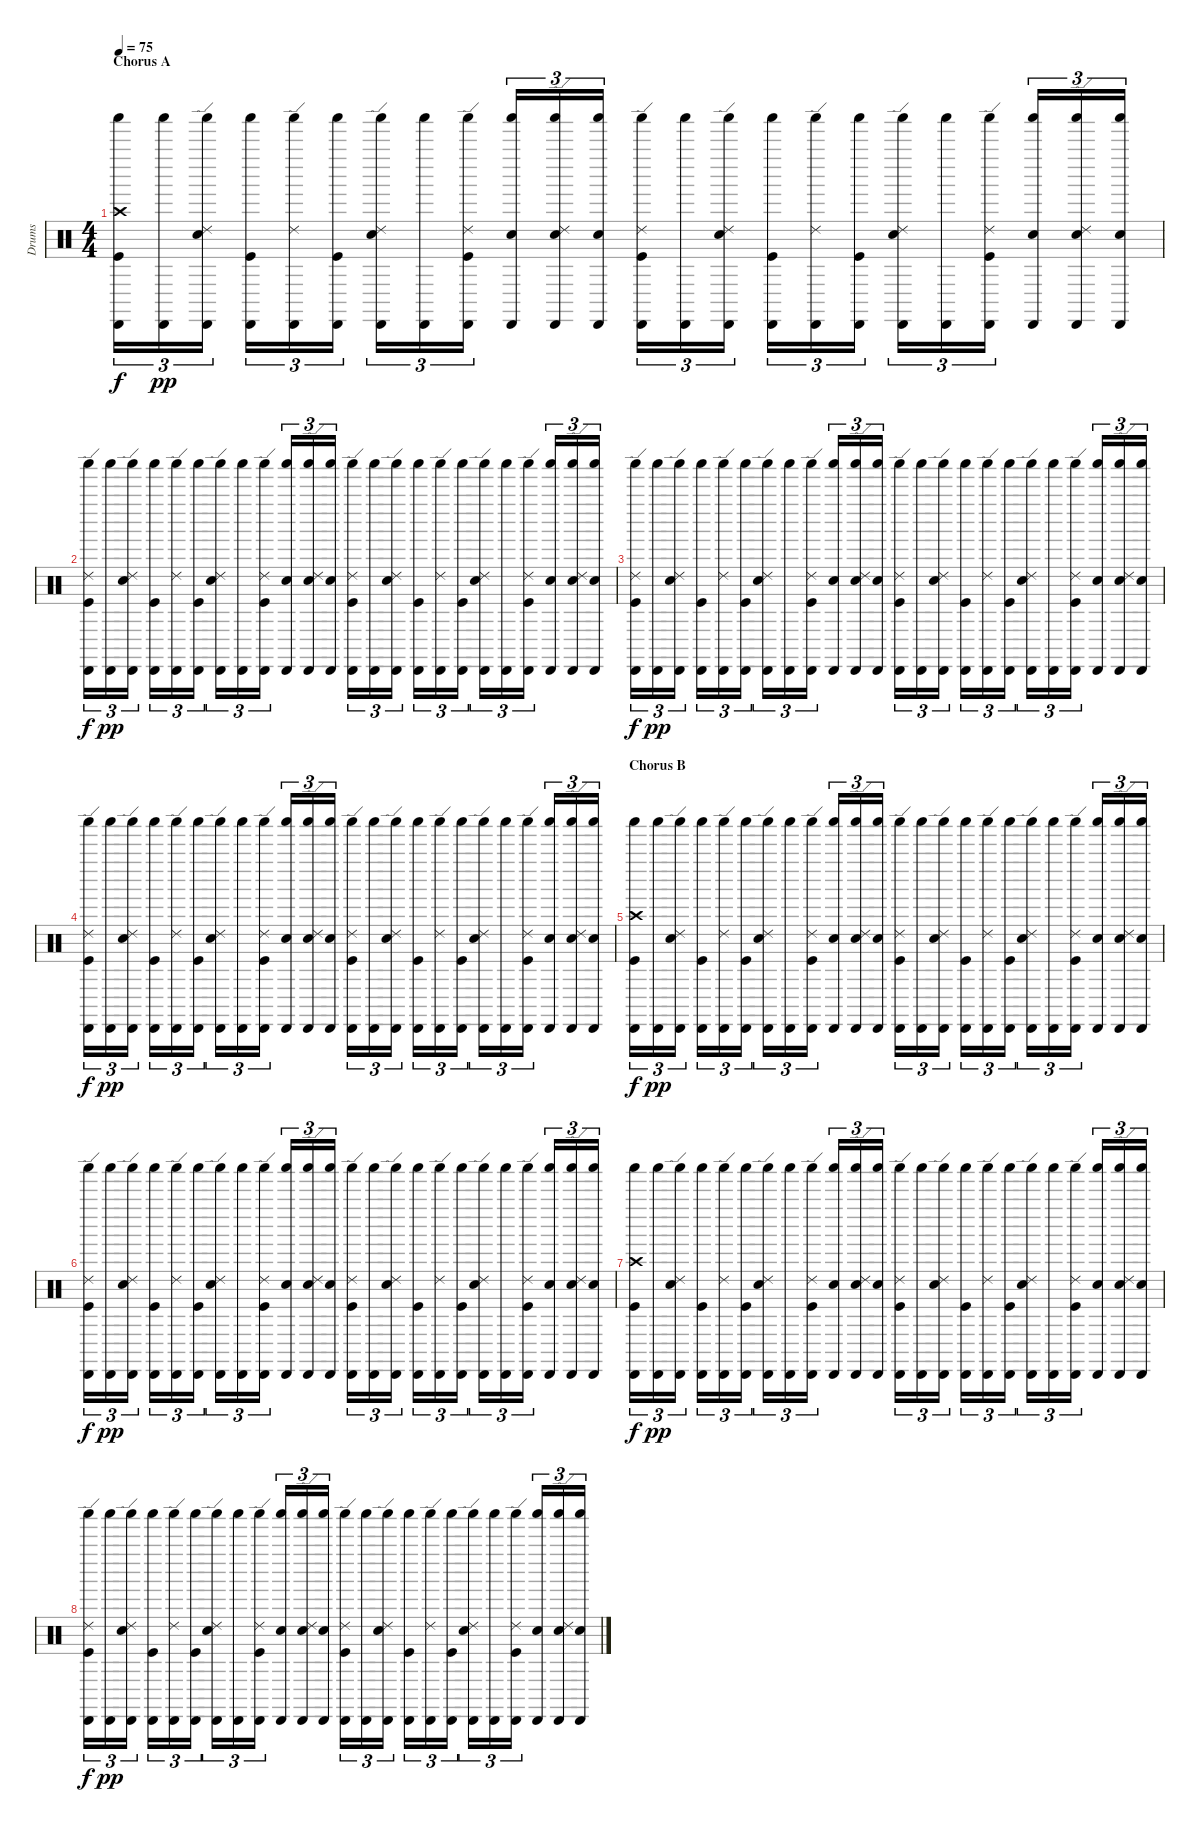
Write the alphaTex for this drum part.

\track ("Drums" "Drums") {instrument percussion}
\staff {score}
\articulation defaults
\ts (4 4)
\section ("" "Chorus A")
\tempo 75
\clef neutral
\ks c
("Cabasa (hit)" "Crash high (hit)" "Kick (hit)" "Shaker (hit)").16{tu (3 2) dy f} ("Cabasa (hit)" "Shaker (hit)").16{tu (3 2) dy pp} ("Electric Snare (hit)" "Ride (edge) 2" "Cabasa (hit)" "Shaker (hit)").16{tu (3 2)} ("Cabasa (hit)" "Kick (hit)" "Shaker (hit)").16{tu (3 2)} ("Ride (edge) 2" "Cabasa (hit)" "Shaker (hit)").16{tu (3 2)} ("Kick (hit)" "Cabasa (hit)" "Shaker (hit)").16{tu (3 2)} ("Cabasa (hit)" "Electric Snare (hit)" "Ride (edge) 2" "Shaker (hit)").16{tu (3 2)} ("Cabasa (hit)" "Shaker (hit)").16{tu (3 2)} ("Cabasa (hit)" "Ride (edge) 2" "Kick (hit)" "Shaker (hit)").16{tu (3 2)} ("Cabasa (hit)" "Electric Snare (hit)" "Shaker (hit)").16{tu (3 2)} ("Electric Snare (hit)" "Ride (edge) 2" "Cabasa (hit)" "Shaker (hit)").16{tu (3 2)} ("Cabasa (hit)" "Electric Snare (hit)" "Shaker (hit)").16{tu (3 2)} ("Cabasa (hit)" "Ride (edge) 2" "Kick (hit)" "Shaker (hit)").16{tu (3 2)} ("Cabasa (hit)" "Shaker (hit)").16{tu (3 2)} ("Cabasa (hit)" "Electric Snare (hit)" "Ride (edge) 2" "Shaker (hit)").16{tu (3 2)} ("Cabasa (hit)" "Kick (hit)" "Shaker (hit)").16{tu (3 2)} ("Cabasa (hit)" "Ride (edge) 2" "Shaker (hit)").16{tu (3 2)} ("Kick (hit)" "Cabasa (hit)" "Shaker (hit)").16{tu (3 2)} ("Cabasa (hit)" "Electric Snare (hit)" "Ride (edge) 2" "Shaker (hit)").16{tu (3 2)} ("Cabasa (hit)" "Shaker (hit)").16{tu (3 2)} ("Cabasa (hit)" "Kick (hit)" "Ride (edge) 2" "Shaker (hit)").16{tu (3 2)} ("Cabasa (hit)" "Electric Snare (hit)" "Shaker (hit)").16{tu (3 2)} ("Electric Snare (hit)" "Ride (edge) 2" "Cabasa (hit)" "Shaker (hit)").16{tu (3 2)} ("Cabasa (hit)" "Electric Snare (hit)" "Shaker (hit)").16{tu (3 2)} |
("Cabasa (hit)" "Ride (edge) 2" "Kick (hit)" "Shaker (hit)").16{tu (3 2) dy f} ("Cabasa (hit)" "Shaker (hit)").16{tu (3 2) dy pp} ("Electric Snare (hit)" "Ride (edge) 2" "Cabasa (hit)" "Shaker (hit)").16{tu (3 2)} ("Cabasa (hit)" "Kick (hit)" "Shaker (hit)").16{tu (3 2)} ("Ride (edge) 2" "Cabasa (hit)" "Shaker (hit)").16{tu (3 2)} ("Kick (hit)" "Cabasa (hit)" "Shaker (hit)").16{tu (3 2)} ("Cabasa (hit)" "Electric Snare (hit)" "Ride (edge) 2" "Shaker (hit)").16{tu (3 2)} ("Cabasa (hit)" "Shaker (hit)").16{tu (3 2)} ("Cabasa (hit)" "Ride (edge) 2" "Kick (hit)" "Shaker (hit)").16{tu (3 2)} ("Cabasa (hit)" "Electric Snare (hit)" "Shaker (hit)").16{tu (3 2)} ("Electric Snare (hit)" "Ride (edge) 2" "Cabasa (hit)" "Shaker (hit)").16{tu (3 2)} ("Cabasa (hit)" "Electric Snare (hit)" "Shaker (hit)").16{tu (3 2)} ("Cabasa (hit)" "Ride (edge) 2" "Kick (hit)" "Shaker (hit)").16{tu (3 2)} ("Cabasa (hit)" "Shaker (hit)").16{tu (3 2)} ("Cabasa (hit)" "Electric Snare (hit)" "Ride (edge) 2" "Shaker (hit)").16{tu (3 2)} ("Cabasa (hit)" "Kick (hit)" "Shaker (hit)").16{tu (3 2)} ("Cabasa (hit)" "Ride (edge) 2" "Shaker (hit)").16{tu (3 2)} ("Kick (hit)" "Cabasa (hit)" "Shaker (hit)").16{tu (3 2)} ("Cabasa (hit)" "Electric Snare (hit)" "Ride (edge) 2" "Shaker (hit)").16{tu (3 2)} ("Cabasa (hit)" "Shaker (hit)").16{tu (3 2)} ("Cabasa (hit)" "Kick (hit)" "Ride (edge) 2" "Shaker (hit)").16{tu (3 2)} ("Cabasa (hit)" "Electric Snare (hit)" "Shaker (hit)").16{tu (3 2)} ("Electric Snare (hit)" "Ride (edge) 2" "Cabasa (hit)" "Shaker (hit)").16{tu (3 2)} ("Cabasa (hit)" "Electric Snare (hit)" "Shaker (hit)").16{tu (3 2)} |
("Cabasa (hit)" "Ride (edge) 2" "Kick (hit)" "Shaker (hit)").16{tu (3 2) dy f} ("Cabasa (hit)" "Shaker (hit)").16{tu (3 2) dy pp} ("Electric Snare (hit)" "Ride (edge) 2" "Cabasa (hit)" "Shaker (hit)").16{tu (3 2)} ("Cabasa (hit)" "Kick (hit)" "Shaker (hit)").16{tu (3 2)} ("Ride (edge) 2" "Cabasa (hit)" "Shaker (hit)").16{tu (3 2)} ("Kick (hit)" "Cabasa (hit)" "Shaker (hit)").16{tu (3 2)} ("Cabasa (hit)" "Electric Snare (hit)" "Ride (edge) 2" "Shaker (hit)").16{tu (3 2)} ("Cabasa (hit)" "Shaker (hit)").16{tu (3 2)} ("Cabasa (hit)" "Ride (edge) 2" "Kick (hit)" "Shaker (hit)").16{tu (3 2)} ("Cabasa (hit)" "Electric Snare (hit)" "Shaker (hit)").16{tu (3 2)} ("Electric Snare (hit)" "Ride (edge) 2" "Cabasa (hit)" "Shaker (hit)").16{tu (3 2)} ("Cabasa (hit)" "Electric Snare (hit)" "Shaker (hit)").16{tu (3 2)} ("Cabasa (hit)" "Ride (edge) 2" "Kick (hit)" "Shaker (hit)").16{tu (3 2)} ("Cabasa (hit)" "Shaker (hit)").16{tu (3 2)} ("Cabasa (hit)" "Electric Snare (hit)" "Ride (edge) 2" "Shaker (hit)").16{tu (3 2)} ("Cabasa (hit)" "Kick (hit)" "Shaker (hit)").16{tu (3 2)} ("Cabasa (hit)" "Ride (edge) 2" "Shaker (hit)").16{tu (3 2)} ("Kick (hit)" "Cabasa (hit)" "Shaker (hit)").16{tu (3 2)} ("Cabasa (hit)" "Electric Snare (hit)" "Ride (edge) 2" "Shaker (hit)").16{tu (3 2)} ("Cabasa (hit)" "Shaker (hit)").16{tu (3 2)} ("Cabasa (hit)" "Kick (hit)" "Ride (edge) 2" "Shaker (hit)").16{tu (3 2)} ("Cabasa (hit)" "Electric Snare (hit)" "Shaker (hit)").16{tu (3 2)} ("Electric Snare (hit)" "Ride (edge) 2" "Cabasa (hit)" "Shaker (hit)").16{tu (3 2)} ("Cabasa (hit)" "Electric Snare (hit)" "Shaker (hit)").16{tu (3 2)} |
("Cabasa (hit)" "Ride (edge) 2" "Kick (hit)" "Shaker (hit)").16{tu (3 2) dy f} ("Cabasa (hit)" "Shaker (hit)").16{tu (3 2) dy pp} ("Electric Snare (hit)" "Ride (edge) 2" "Cabasa (hit)" "Shaker (hit)").16{tu (3 2)} ("Cabasa (hit)" "Kick (hit)" "Shaker (hit)").16{tu (3 2)} ("Ride (edge) 2" "Cabasa (hit)" "Shaker (hit)").16{tu (3 2)} ("Kick (hit)" "Cabasa (hit)" "Shaker (hit)").16{tu (3 2)} ("Cabasa (hit)" "Electric Snare (hit)" "Ride (edge) 2" "Shaker (hit)").16{tu (3 2)} ("Cabasa (hit)" "Shaker (hit)").16{tu (3 2)} ("Cabasa (hit)" "Ride (edge) 2" "Kick (hit)" "Shaker (hit)").16{tu (3 2)} ("Cabasa (hit)" "Electric Snare (hit)" "Shaker (hit)").16{tu (3 2)} ("Electric Snare (hit)" "Ride (edge) 2" "Cabasa (hit)" "Shaker (hit)").16{tu (3 2)} ("Cabasa (hit)" "Electric Snare (hit)" "Shaker (hit)").16{tu (3 2)} ("Cabasa (hit)" "Ride (edge) 2" "Kick (hit)" "Shaker (hit)").16{tu (3 2)} ("Cabasa (hit)" "Shaker (hit)").16{tu (3 2)} ("Cabasa (hit)" "Electric Snare (hit)" "Ride (edge) 2" "Shaker (hit)").16{tu (3 2)} ("Cabasa (hit)" "Kick (hit)" "Shaker (hit)").16{tu (3 2)} ("Cabasa (hit)" "Ride (edge) 2" "Shaker (hit)").16{tu (3 2)} ("Kick (hit)" "Cabasa (hit)" "Shaker (hit)").16{tu (3 2)} ("Cabasa (hit)" "Electric Snare (hit)" "Ride (edge) 2" "Shaker (hit)").16{tu (3 2)} ("Cabasa (hit)" "Shaker (hit)").16{tu (3 2)} ("Cabasa (hit)" "Kick (hit)" "Ride (edge) 2" "Shaker (hit)").16{tu (3 2)} ("Cabasa (hit)" "Electric Snare (hit)" "Shaker (hit)").16{tu (3 2)} ("Electric Snare (hit)" "Ride (edge) 2" "Cabasa (hit)" "Shaker (hit)").16{tu (3 2)} ("Cabasa (hit)" "Electric Snare (hit)" "Shaker (hit)").16{tu (3 2)} |
\section ("" "Chorus B")
("Cabasa (hit)" "Crash high (hit)" "Kick (hit)" "Shaker (hit)").16{tu (3 2) dy f} ("Cabasa (hit)" "Shaker (hit)").16{tu (3 2) dy pp} ("Electric Snare (hit)" "Ride (edge) 2" "Cabasa (hit)" "Shaker (hit)").16{tu (3 2)} ("Cabasa (hit)" "Kick (hit)" "Shaker (hit)").16{tu (3 2)} ("Ride (edge) 2" "Cabasa (hit)" "Shaker (hit)").16{tu (3 2)} ("Kick (hit)" "Cabasa (hit)" "Shaker (hit)").16{tu (3 2)} ("Cabasa (hit)" "Electric Snare (hit)" "Ride (edge) 2" "Shaker (hit)").16{tu (3 2)} ("Cabasa (hit)" "Shaker (hit)").16{tu (3 2)} ("Cabasa (hit)" "Ride (edge) 2" "Kick (hit)" "Shaker (hit)").16{tu (3 2)} ("Cabasa (hit)" "Electric Snare (hit)" "Shaker (hit)").16{tu (3 2)} ("Electric Snare (hit)" "Ride (edge) 2" "Cabasa (hit)" "Shaker (hit)").16{tu (3 2)} ("Cabasa (hit)" "Electric Snare (hit)" "Shaker (hit)").16{tu (3 2)} ("Cabasa (hit)" "Ride (edge) 2" "Kick (hit)" "Shaker (hit)").16{tu (3 2)} ("Cabasa (hit)" "Shaker (hit)").16{tu (3 2)} ("Cabasa (hit)" "Electric Snare (hit)" "Ride (edge) 2" "Shaker (hit)").16{tu (3 2)} ("Cabasa (hit)" "Kick (hit)" "Shaker (hit)").16{tu (3 2)} ("Cabasa (hit)" "Ride (edge) 2" "Shaker (hit)").16{tu (3 2)} ("Kick (hit)" "Cabasa (hit)" "Shaker (hit)").16{tu (3 2)} ("Cabasa (hit)" "Electric Snare (hit)" "Ride (edge) 2" "Shaker (hit)").16{tu (3 2)} ("Cabasa (hit)" "Shaker (hit)").16{tu (3 2)} ("Cabasa (hit)" "Kick (hit)" "Ride (edge) 2" "Shaker (hit)").16{tu (3 2)} ("Cabasa (hit)" "Electric Snare (hit)" "Shaker (hit)").16{tu (3 2)} ("Electric Snare (hit)" "Ride (edge) 2" "Cabasa (hit)" "Shaker (hit)").16{tu (3 2)} ("Cabasa (hit)" "Electric Snare (hit)" "Shaker (hit)").16{tu (3 2)} |
("Cabasa (hit)" "Ride (edge) 2" "Kick (hit)" "Shaker (hit)").16{tu (3 2) dy f} ("Cabasa (hit)" "Shaker (hit)").16{tu (3 2) dy pp} ("Electric Snare (hit)" "Ride (edge) 2" "Cabasa (hit)" "Shaker (hit)").16{tu (3 2)} ("Cabasa (hit)" "Kick (hit)" "Shaker (hit)").16{tu (3 2)} ("Ride (edge) 2" "Cabasa (hit)" "Shaker (hit)").16{tu (3 2)} ("Kick (hit)" "Cabasa (hit)" "Shaker (hit)").16{tu (3 2)} ("Cabasa (hit)" "Electric Snare (hit)" "Ride (edge) 2" "Shaker (hit)").16{tu (3 2)} ("Cabasa (hit)" "Shaker (hit)").16{tu (3 2)} ("Cabasa (hit)" "Ride (edge) 2" "Kick (hit)" "Shaker (hit)").16{tu (3 2)} ("Cabasa (hit)" "Electric Snare (hit)" "Shaker (hit)").16{tu (3 2)} ("Electric Snare (hit)" "Ride (edge) 2" "Cabasa (hit)" "Shaker (hit)").16{tu (3 2)} ("Cabasa (hit)" "Electric Snare (hit)" "Shaker (hit)").16{tu (3 2)} ("Cabasa (hit)" "Ride (edge) 2" "Kick (hit)" "Shaker (hit)").16{tu (3 2)} ("Cabasa (hit)" "Shaker (hit)").16{tu (3 2)} ("Cabasa (hit)" "Electric Snare (hit)" "Ride (edge) 2" "Shaker (hit)").16{tu (3 2)} ("Cabasa (hit)" "Kick (hit)" "Shaker (hit)").16{tu (3 2)} ("Cabasa (hit)" "Ride (edge) 2" "Shaker (hit)").16{tu (3 2)} ("Kick (hit)" "Cabasa (hit)" "Shaker (hit)").16{tu (3 2)} ("Cabasa (hit)" "Electric Snare (hit)" "Ride (edge) 2" "Shaker (hit)").16{tu (3 2)} ("Cabasa (hit)" "Shaker (hit)").16{tu (3 2)} ("Cabasa (hit)" "Kick (hit)" "Ride (edge) 2" "Shaker (hit)").16{tu (3 2)} ("Cabasa (hit)" "Electric Snare (hit)" "Shaker (hit)").16{tu (3 2)} ("Electric Snare (hit)" "Ride (edge) 2" "Cabasa (hit)" "Shaker (hit)").16{tu (3 2)} ("Cabasa (hit)" "Electric Snare (hit)" "Shaker (hit)").16{tu (3 2)} |
("Cabasa (hit)" "Crash high (hit)" "Kick (hit)" "Shaker (hit)").16{tu (3 2) dy f} ("Cabasa (hit)" "Shaker (hit)").16{tu (3 2) dy pp} ("Electric Snare (hit)" "Ride (edge) 2" "Cabasa (hit)" "Shaker (hit)").16{tu (3 2)} ("Cabasa (hit)" "Kick (hit)" "Shaker (hit)").16{tu (3 2)} ("Ride (edge) 2" "Cabasa (hit)" "Shaker (hit)").16{tu (3 2)} ("Kick (hit)" "Cabasa (hit)" "Shaker (hit)").16{tu (3 2)} ("Cabasa (hit)" "Electric Snare (hit)" "Ride (edge) 2" "Shaker (hit)").16{tu (3 2)} ("Cabasa (hit)" "Shaker (hit)").16{tu (3 2)} ("Cabasa (hit)" "Ride (edge) 2" "Kick (hit)" "Shaker (hit)").16{tu (3 2)} ("Cabasa (hit)" "Electric Snare (hit)" "Shaker (hit)").16{tu (3 2)} ("Electric Snare (hit)" "Ride (edge) 2" "Cabasa (hit)" "Shaker (hit)").16{tu (3 2)} ("Cabasa (hit)" "Electric Snare (hit)" "Shaker (hit)").16{tu (3 2)} ("Cabasa (hit)" "Ride (edge) 2" "Kick (hit)" "Shaker (hit)").16{tu (3 2)} ("Cabasa (hit)" "Shaker (hit)").16{tu (3 2)} ("Cabasa (hit)" "Electric Snare (hit)" "Ride (edge) 2" "Shaker (hit)").16{tu (3 2)} ("Cabasa (hit)" "Kick (hit)" "Shaker (hit)").16{tu (3 2)} ("Cabasa (hit)" "Ride (edge) 2" "Shaker (hit)").16{tu (3 2)} ("Kick (hit)" "Cabasa (hit)" "Shaker (hit)").16{tu (3 2)} ("Cabasa (hit)" "Electric Snare (hit)" "Ride (edge) 2" "Shaker (hit)").16{tu (3 2)} ("Cabasa (hit)" "Shaker (hit)").16{tu (3 2)} ("Cabasa (hit)" "Kick (hit)" "Ride (edge) 2" "Shaker (hit)").16{tu (3 2)} ("Cabasa (hit)" "Electric Snare (hit)" "Shaker (hit)").16{tu (3 2)} ("Electric Snare (hit)" "Ride (edge) 2" "Cabasa (hit)" "Shaker (hit)").16{tu (3 2)} ("Cabasa (hit)" "Electric Snare (hit)" "Shaker (hit)").16{tu (3 2)} |
("Cabasa (hit)" "Ride (edge) 2" "Kick (hit)" "Shaker (hit)").16{tu (3 2) dy f} ("Cabasa (hit)" "Shaker (hit)").16{tu (3 2) dy pp} ("Electric Snare (hit)" "Ride (edge) 2" "Cabasa (hit)" "Shaker (hit)").16{tu (3 2)} ("Cabasa (hit)" "Kick (hit)" "Shaker (hit)").16{tu (3 2)} ("Ride (edge) 2" "Cabasa (hit)" "Shaker (hit)").16{tu (3 2)} ("Kick (hit)" "Cabasa (hit)" "Shaker (hit)").16{tu (3 2)} ("Cabasa (hit)" "Electric Snare (hit)" "Ride (edge) 2" "Shaker (hit)").16{tu (3 2)} ("Cabasa (hit)" "Shaker (hit)").16{tu (3 2)} ("Cabasa (hit)" "Ride (edge) 2" "Kick (hit)" "Shaker (hit)").16{tu (3 2)} ("Cabasa (hit)" "Electric Snare (hit)" "Shaker (hit)").16{tu (3 2)} ("Electric Snare (hit)" "Ride (edge) 2" "Cabasa (hit)" "Shaker (hit)").16{tu (3 2)} ("Cabasa (hit)" "Electric Snare (hit)" "Shaker (hit)").16{tu (3 2)} ("Cabasa (hit)" "Ride (edge) 2" "Kick (hit)" "Shaker (hit)").16{tu (3 2)} ("Cabasa (hit)" "Shaker (hit)").16{tu (3 2)} ("Cabasa (hit)" "Electric Snare (hit)" "Ride (edge) 2" "Shaker (hit)").16{tu (3 2)} ("Cabasa (hit)" "Kick (hit)" "Shaker (hit)").16{tu (3 2)} ("Cabasa (hit)" "Ride (edge) 2" "Shaker (hit)").16{tu (3 2)} ("Kick (hit)" "Cabasa (hit)" "Shaker (hit)").16{tu (3 2)} ("Cabasa (hit)" "Electric Snare (hit)" "Ride (edge) 2" "Shaker (hit)").16{tu (3 2)} ("Cabasa (hit)" "Shaker (hit)").16{tu (3 2)} ("Cabasa (hit)" "Kick (hit)" "Ride (edge) 2" "Shaker (hit)").16{tu (3 2)} ("Cabasa (hit)" "Electric Snare (hit)" "Shaker (hit)").16{tu (3 2)} ("Electric Snare (hit)" "Ride (edge) 2" "Cabasa (hit)" "Shaker (hit)").16{tu (3 2)} ("Cabasa (hit)" "Electric Snare (hit)" "Shaker (hit)").16{tu (3 2)}
